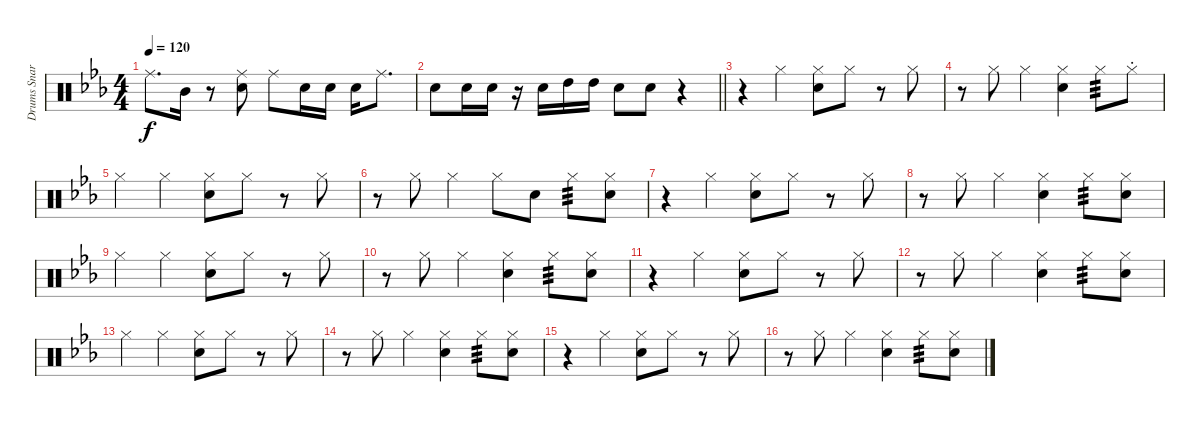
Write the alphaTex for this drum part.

\track ("Drums Snare" "Drums Snar") {instrument percussion}
\staff {score}
\articulation defaults
\ts (4 4)
\tempo 120
\clef neutral
\ks eb "Ride (middle)".8{d dy f} "Mid Tom (hit)".16
r.8 ("Ride (middle)" "Snare (hit) 2").8 "Ride (middle)".8 "Snare (hit) 2".16 "Snare (hit) 2".16 "Snare (hit) 2".16 "Ride (middle)".8{d} |
\barLineRight lightlight "Snare (hit) 2".8 "Snare (hit) 2".16 "Snare (hit) 2".16
r.16 "Snare (hit) 2".16 "High Tom (hit)".16 "High Tom (hit)".16 "Snare (hit) 2".8 "Snare (hit) 2".8 r.4 |
r.4 "Hi-Hat (closed)".4 ("Hi-Hat (closed)" "Snare (hit) 2").8 "Hi-Hat (closed)".8 r.8 "Hi-Hat (closed)".8 |
r.8 "Hi-Hat (closed)".8 "Hi-Hat (closed)".4 ("Hi-Hat (closed)" "Snare (hit) 2").4 "Hi-Hat (closed)".8{tp 3} "Hi-Hat (closed)"{st}.8 |
"Hi-Hat (closed)".4 "Hi-Hat (closed)".4 ("Hi-Hat (closed)" "Snare (hit) 2").8 "Hi-Hat (closed)".8 r.8 "Hi-Hat (closed)".8 |
r.8 "Hi-Hat (closed)".8 "Hi-Hat (closed)".4 "Hi-Hat (closed)".8 "Snare (hit) 2".8 "Hi-Hat (closed)".8{tp 3} ("Hi-Hat (closed)" "Snare (hit) 2").8 |
r.4 "Hi-Hat (closed)".4 ("Hi-Hat (closed)" "Snare (hit) 2").8 "Hi-Hat (closed)".8 r.8 "Hi-Hat (closed)".8 |
r.8 "Hi-Hat (closed)".8 "Hi-Hat (closed)".4 ("Hi-Hat (closed)" "Snare (hit) 2").4 "Hi-Hat (closed)".8{tp 3} ("Hi-Hat (closed)" "Snare (hit) 2").8 |
"Hi-Hat (closed)".4 "Hi-Hat (closed)".4 ("Hi-Hat (closed)" "Snare (hit) 2").8 "Hi-Hat (closed)".8 r.8 "Hi-Hat (closed)".8 |
r.8 "Hi-Hat (closed)".8 "Hi-Hat (closed)".4 ("Hi-Hat (closed)" "Snare (hit) 2").4 "Hi-Hat (closed)".8{tp 3} ("Hi-Hat (closed)" "Snare (hit) 2").8 |
r.4 "Hi-Hat (closed)".4 ("Hi-Hat (closed)" "Snare (hit) 2").8 "Hi-Hat (closed)".8 r.8 "Hi-Hat (closed)".8 |
r.8 "Hi-Hat (closed)".8 "Hi-Hat (closed)".4 ("Hi-Hat (closed)" "Snare (hit) 2").4 "Hi-Hat (closed)".8{tp 3} ("Hi-Hat (closed)" "Snare (hit) 2").8 |
"Hi-Hat (closed)".4 "Hi-Hat (closed)".4 ("Hi-Hat (closed)" "Snare (hit) 2").8 "Hi-Hat (closed)".8 r.8 "Hi-Hat (closed)".8 |
r.8 "Hi-Hat (closed)".8 "Hi-Hat (closed)".4 ("Hi-Hat (closed)" "Snare (hit) 2").4 "Hi-Hat (closed)".8{tp 3} ("Hi-Hat (closed)" "Snare (hit) 2").8 |
r.4 "Hi-Hat (closed)".4 ("Hi-Hat (closed)" "Snare (hit) 2").8 "Hi-Hat (closed)".8 r.8 "Hi-Hat (closed)".8 |
r.8 "Hi-Hat (closed)".8 "Hi-Hat (closed)".4 ("Hi-Hat (closed)" "Snare (hit) 2").4 "Hi-Hat (closed)".8{tp 3} ("Hi-Hat (closed)" "Snare (hit) 2").8
